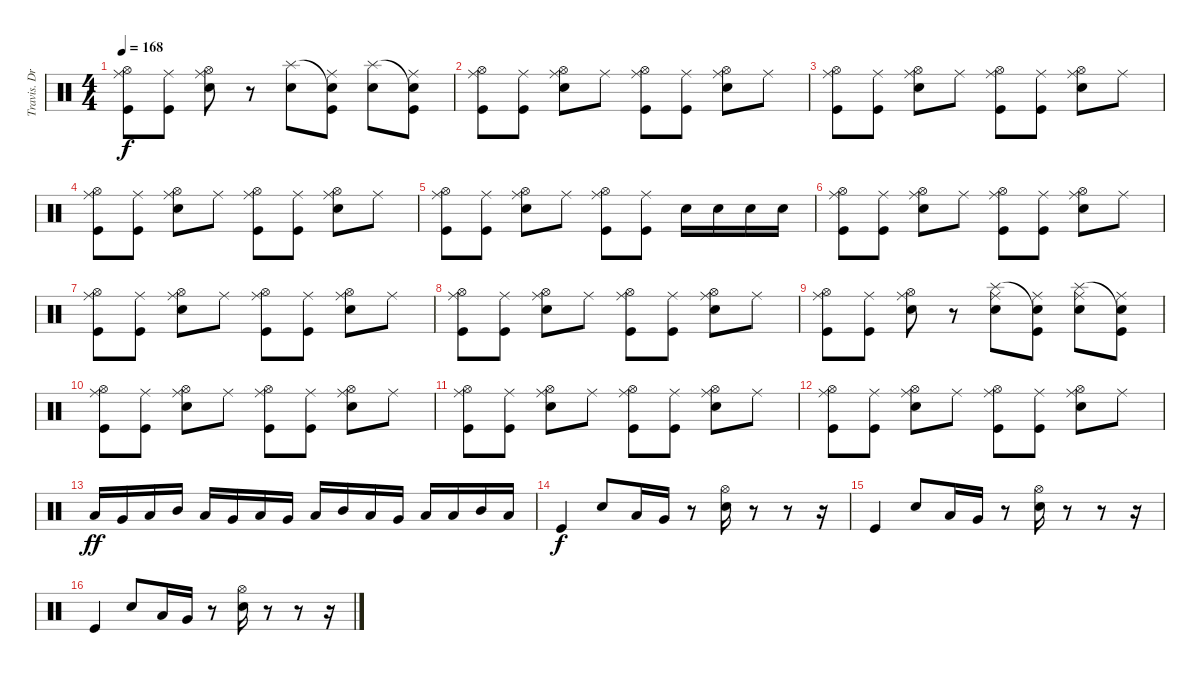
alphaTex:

\track ("Travis. Drums" "Travis. Dr") {instrument percussion}
\staff {score}
\articulation defaults
\ts (4 4)
\tempo 168
\clef neutral
\ks c
("Hi-Hat (open)" "Ride (middle)" "Kick (hit)").8{dy f} ("Ride (middle)" "Kick (hit)").8 ("Hi-Hat (open)" "Ride (middle)" "Snare (hit) 2").8 r.8 ("Splash (hit)" "Snare (hit) 2").8 ("Snare (hit)"{t} "Ride (middle)" "Kick (hit)").8 ("Splash (hit)" "Snare (hit) 2").8 ("Snare (hit)"{t} "Ride (middle)" "Kick (hit)").8 |
("Hi-Hat (open)" "Ride (middle)" "Kick (hit)").8 ("Ride (middle)" "Kick (hit)").8 ("Hi-Hat (open)" "Ride (middle)" "Snare (hit) 2").8 "Ride (middle)".8 ("Hi-Hat (open)" "Ride (middle)" "Kick (hit)").8 ("Ride (middle)" "Kick (hit)").8 ("Hi-Hat (open)" "Ride (middle)" "Snare (hit) 2").8 "Ride (middle)".8 |
("Hi-Hat (open)" "Ride (middle)" "Kick (hit)").8 ("Ride (middle)" "Kick (hit)").8 ("Hi-Hat (open)" "Ride (middle)" "Snare (hit) 2").8 "Ride (middle)".8 ("Hi-Hat (open)" "Ride (middle)" "Kick (hit)").8 ("Ride (middle)" "Kick (hit)").8 ("Hi-Hat (open)" "Ride (middle)" "Snare (hit) 2").8 "Ride (middle)".8 |
("Hi-Hat (open)" "Ride (middle)" "Kick (hit)").8 ("Ride (middle)" "Kick (hit)").8 ("Hi-Hat (open)" "Ride (middle)" "Snare (hit) 2").8 "Ride (middle)".8 ("Hi-Hat (open)" "Ride (middle)" "Kick (hit)").8 ("Ride (middle)" "Kick (hit)").8 ("Hi-Hat (open)" "Ride (middle)" "Snare (hit) 2").8 "Ride (middle)".8 |
("Hi-Hat (open)" "Ride (middle)" "Kick (hit)").8 ("Ride (middle)" "Kick (hit)").8 ("Hi-Hat (open)" "Ride (middle)" "Snare (hit) 2").8 "Ride (middle)".8 ("Hi-Hat (open)" "Ride (middle)" "Kick (hit)").8 ("Ride (middle)" "Kick (hit)").8 "Snare (hit) 2".16 "Snare (hit) 2".16 "Snare (hit) 2".16 "Snare (hit) 2".16 |
("Hi-Hat (open)" "Ride (middle)" "Kick (hit)").8 ("Ride (middle)" "Kick (hit)").8 ("Hi-Hat (open)" "Ride (middle)" "Snare (hit) 2").8 "Ride (middle)".8 ("Hi-Hat (open)" "Ride (middle)" "Kick (hit)").8 ("Ride (middle)" "Kick (hit)").8 ("Hi-Hat (open)" "Ride (middle)" "Snare (hit) 2").8 "Ride (middle)".8 |
("Hi-Hat (open)" "Ride (middle)" "Kick (hit)").8 ("Ride (middle)" "Kick (hit)").8 ("Hi-Hat (open)" "Ride (middle)" "Snare (hit) 2").8 "Ride (middle)".8 ("Hi-Hat (open)" "Ride (middle)" "Kick (hit)").8 ("Ride (middle)" "Kick (hit)").8 ("Hi-Hat (open)" "Ride (middle)" "Snare (hit) 2").8 "Ride (middle)".8 |
("Hi-Hat (open)" "Ride (middle)" "Kick (hit)").8 ("Ride (middle)" "Kick (hit)").8 ("Hi-Hat (open)" "Ride (middle)" "Snare (hit) 2").8 "Ride (middle)".8 ("Hi-Hat (open)" "Ride (middle)" "Kick (hit)").8 ("Ride (middle)" "Kick (hit)").8 ("Hi-Hat (open)" "Ride (middle)" "Snare (hit) 2").8 "Ride (middle)".8 |
("Hi-Hat (open)" "Ride (middle)" "Kick (hit)").8 ("Ride (middle)" "Kick (hit)").8 ("Hi-Hat (open)" "Ride (middle)" "Snare (hit) 2").8 r.8 ("Splash (hit)" "Ride (middle)" "Snare (hit) 2").8 ("Snare (hit)"{t} "Ride (middle)" "Kick (hit)").8 ("Splash (hit)" "Ride (middle)" "Snare (hit) 2").8 ("Snare (hit)"{t} "Ride (middle)" "Kick (hit)").8 |
("Hi-Hat (open)" "Ride (middle)" "Kick (hit)").8 ("Ride (middle)" "Kick (hit)").8 ("Hi-Hat (open)" "Ride (middle)" "Snare (hit) 2").8 "Ride (middle)".8 ("Hi-Hat (open)" "Ride (middle)" "Kick (hit)").8 ("Ride (middle)" "Kick (hit)").8 ("Hi-Hat (open)" "Ride (middle)" "Snare (hit) 2").8 "Ride (middle)".8 |
("Hi-Hat (open)" "Ride (middle)" "Kick (hit)").8 ("Ride (middle)" "Kick (hit)").8 ("Hi-Hat (open)" "Ride (middle)" "Snare (hit) 2").8 "Ride (middle)".8 ("Hi-Hat (open)" "Ride (middle)" "Kick (hit)").8 ("Ride (middle)" "Kick (hit)").8 ("Hi-Hat (open)" "Ride (middle)" "Snare (hit) 2").8 "Ride (middle)".8 |
("Hi-Hat (open)" "Ride (middle)" "Kick (hit)").8 ("Ride (middle)" "Kick (hit)").8 ("Hi-Hat (open)" "Ride (middle)" "Snare (hit) 2").8 "Ride (middle)".8 ("Hi-Hat (open)" "Ride (middle)" "Kick (hit)").8 ("Ride (middle)" "Kick (hit)").8 ("Hi-Hat (open)" "Ride (middle)" "Snare (hit) 2").8 "Ride (middle)".8 |
"Low Floor Tom (hit)".16{dy ff} "Very Low Tom (hit)".16 "Low Tom (hit)".16 "Mid Tom (hit)".16 "Low Tom (hit)".16 "Very Low Tom (hit)".16 "Low Floor Tom (hit)".16 "Very Low Tom (hit)".16 "Low Tom (hit)".16 "Mid Tom (hit)".16 "Low Tom (hit)".16 "Very Low Tom (hit)".16 "Low Floor Tom (hit)".16 "Low Tom (hit)".16 "Mid Tom (hit)".16 "Low Tom (hit)".16 |
"Kick (hit)".4{dy f} "Snare (hit) 2".8 "Low Tom (hit)".16 "Very Low Tom (hit)".16 r.8 ("Hi-Hat (open)" "Snare (hit) 2").16 r.8 r.8 r.16 |
"Kick (hit)".4 "Snare (hit) 2".8 "Low Tom (hit)".16 "Very Low Tom (hit)".16 r.8 ("Hi-Hat (open)" "Snare (hit) 2").16 r.8 r.8 r.16 |
"Kick (hit)".4 "Snare (hit) 2".8 "Low Tom (hit)".16 "Very Low Tom (hit)".16 r.8 ("Hi-Hat (open)" "Snare (hit) 2").16 r.8 r.8 r.16
